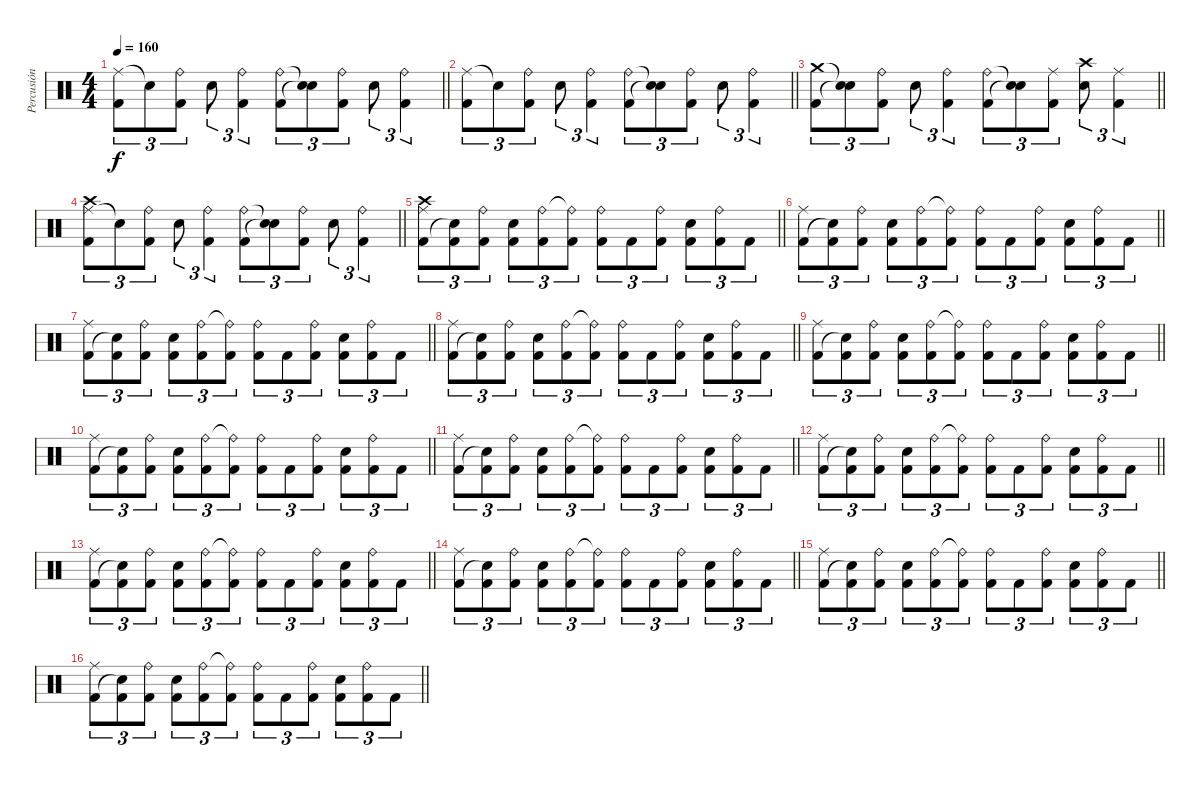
\track ("Percusión" "Percusión") {instrument percussion}
\staff {score}
\articulation defaults
\ts (4 4)
\tempo 160
\clef neutral
\barLineRight lightlight
\ks c
("Ride (middle)" "Kick (hit) 2").8{tu (3 2) dy f} "Snare (hit)"{t}.8{tu (3 2)} ("Ride (bell)" "Kick (hit) 2").8{tu (3 2)} "Snare (hit) 2".8{tu (3 2)} ("Ride (bell)" "Kick (hit) 2").4{tu (3 2)} ("Ride (bell)" "Kick (hit) 2").8{tu (3 2)} ("Snare (hit)"{t} "Snare (hit)"{t}).8{tu (3 2)} ("Ride (bell)" "Kick (hit) 2").8{tu (3 2)} "Snare (hit) 2".8{tu (3 2)} ("Ride (bell)" "Kick (hit) 2").4{tu (3 2)} |
\barLineRight lightlight
("Ride (middle)" "Kick (hit) 2").8{tu (3 2)} "Snare (hit)"{t}.8{tu (3 2)} ("Ride (bell)" "Kick (hit) 2").8{tu (3 2)} "Snare (hit) 2".8{tu (3 2)} ("Ride (bell)" "Kick (hit) 2").4{tu (3 2)} ("Ride (bell)" "Kick (hit) 2").8{tu (3 2)} ("Snare (hit)"{t} "Snare (hit)"{t}).8{tu (3 2)} ("Ride (bell)" "Kick (hit) 2").8{tu (3 2)} "Snare (hit) 2".8{tu (3 2)} ("Ride (bell)" "Kick (hit) 2").4{tu (3 2)} |
\barLineRight lightlight
("Crash medium (hit)" "Kick (hit) 2").8{tu (3 2)} ("Snare (hit)"{t} "Snare (hit)"{t}).8{tu (3 2)} ("Ride (bell)" "Kick (hit) 2").8{tu (3 2)} "Snare (hit) 2".8{tu (3 2)} ("Ride (bell)" "Kick (hit) 2").4{tu (3 2)} ("Ride (bell)" "Kick (hit) 2").8{tu (3 2)} ("Snare (hit)"{t} "Snare (hit)"{t}).8{tu (3 2)} ("Ride (middle)" "Kick (hit) 2").8{tu (3 2)} ("Snare (hit) 2" "Crash high (hit)").8{tu (3 2)} ("Ride (middle)" "Kick (hit) 2").4{tu (3 2)} |
\barLineRight lightlight
("Ride (middle)" "Kick (hit) 2" "Crash high (hit)").8{tu (3 2)} "Snare (hit)"{t}.8{tu (3 2)} ("Ride (bell)" "Kick (hit) 2").8{tu (3 2)} "Snare (hit) 2".8{tu (3 2)} ("Ride (bell)" "Kick (hit) 2").4{tu (3 2)} ("Ride (bell)" "Kick (hit) 2").8{tu (3 2)} ("Snare (hit)"{t} "Snare (hit)"{t}).8{tu (3 2)} ("Ride (bell)" "Kick (hit) 2").8{tu (3 2)} "Snare (hit) 2".8{tu (3 2)} ("Ride (bell)" "Kick (hit) 2").4{tu (3 2)} |
\barLineRight lightlight
("Ride (middle)" "Kick (hit) 2" "Crash high (hit)").8{tu (3 2)} ("Kick (hit) 2" "Snare (hit)"{t}).8{tu (3 2)} ("Ride (bell)" "Kick (hit) 2").8{tu (3 2)} ("Snare (hit) 2" "Kick (hit) 2").8{tu (3 2)} ("Ride (bell)" "Kick (hit) 2").8{tu (3 2)} ("Ride (bell)"{t} "Kick (hit) 2").8{tu (3 2)} ("Kick (hit) 2" "Ride (bell)").8{tu (3 2)} "Kick (hit) 2".8{tu (3 2)} ("Ride (bell)" "Kick (hit) 2").8{tu (3 2)} ("Kick (hit) 2" "Snare (hit) 2").8{tu (3 2)} ("Kick (hit) 2" "Ride (bell)").8{tu (3 2)} "Kick (hit) 2".8{tu (3 2)} |
\barLineRight lightlight
("Ride (middle)" "Kick (hit) 2").8{tu (3 2)} ("Kick (hit) 2" "Snare (hit)"{t}).8{tu (3 2)} ("Ride (bell)" "Kick (hit) 2").8{tu (3 2)} ("Snare (hit) 2" "Kick (hit) 2").8{tu (3 2)} ("Ride (bell)" "Kick (hit) 2").8{tu (3 2)} ("Ride (bell)"{t} "Kick (hit) 2").8{tu (3 2)} ("Kick (hit) 2" "Ride (bell)").8{tu (3 2)} "Kick (hit) 2".8{tu (3 2)} ("Ride (bell)" "Kick (hit) 2").8{tu (3 2)} ("Kick (hit) 2" "Snare (hit) 2").8{tu (3 2)} ("Kick (hit) 2" "Ride (bell)").8{tu (3 2)} "Kick (hit) 2".8{tu (3 2)} |
\barLineRight lightlight
("Ride (middle)" "Kick (hit) 2").8{tu (3 2)} ("Kick (hit) 2" "Snare (hit)"{t}).8{tu (3 2)} ("Ride (bell)" "Kick (hit) 2").8{tu (3 2)} ("Snare (hit) 2" "Kick (hit) 2").8{tu (3 2)} ("Ride (bell)" "Kick (hit) 2").8{tu (3 2)} ("Ride (bell)"{t} "Kick (hit) 2").8{tu (3 2)} ("Kick (hit) 2" "Ride (bell)").8{tu (3 2)} "Kick (hit) 2".8{tu (3 2)} ("Ride (bell)" "Kick (hit) 2").8{tu (3 2)} ("Kick (hit) 2" "Snare (hit) 2").8{tu (3 2)} ("Kick (hit) 2" "Ride (bell)").8{tu (3 2)} "Kick (hit) 2".8{tu (3 2)} |
\barLineRight lightlight
("Ride (middle)" "Kick (hit) 2").8{tu (3 2)} ("Kick (hit) 2" "Snare (hit)"{t}).8{tu (3 2)} ("Ride (bell)" "Kick (hit) 2").8{tu (3 2)} ("Snare (hit) 2" "Kick (hit) 2").8{tu (3 2)} ("Ride (bell)" "Kick (hit) 2").8{tu (3 2)} ("Ride (bell)"{t} "Kick (hit) 2").8{tu (3 2)} ("Kick (hit) 2" "Ride (bell)").8{tu (3 2)} "Kick (hit) 2".8{tu (3 2)} ("Ride (bell)" "Kick (hit) 2").8{tu (3 2)} ("Kick (hit) 2" "Snare (hit) 2").8{tu (3 2)} ("Kick (hit) 2" "Ride (bell)").8{tu (3 2)} "Kick (hit) 2".8{tu (3 2)} |
\barLineRight lightlight
("Ride (middle)" "Kick (hit) 2").8{tu (3 2)} ("Kick (hit) 2" "Snare (hit)"{t}).8{tu (3 2)} ("Ride (bell)" "Kick (hit) 2").8{tu (3 2)} ("Snare (hit) 2" "Kick (hit) 2").8{tu (3 2)} ("Ride (bell)" "Kick (hit) 2").8{tu (3 2)} ("Ride (bell)"{t} "Kick (hit) 2").8{tu (3 2)} ("Kick (hit) 2" "Ride (bell)").8{tu (3 2)} "Kick (hit) 2".8{tu (3 2)} ("Ride (bell)" "Kick (hit) 2").8{tu (3 2)} ("Kick (hit) 2" "Snare (hit) 2").8{tu (3 2)} ("Kick (hit) 2" "Ride (bell)").8{tu (3 2)} "Kick (hit) 2".8{tu (3 2)} |
\barLineRight lightlight
("Ride (middle)" "Kick (hit) 2").8{tu (3 2)} ("Kick (hit) 2" "Snare (hit)"{t}).8{tu (3 2)} ("Ride (bell)" "Kick (hit) 2").8{tu (3 2)} ("Snare (hit) 2" "Kick (hit) 2").8{tu (3 2)} ("Ride (bell)" "Kick (hit) 2").8{tu (3 2)} ("Ride (bell)"{t} "Kick (hit) 2").8{tu (3 2)} ("Kick (hit) 2" "Ride (bell)").8{tu (3 2)} "Kick (hit) 2".8{tu (3 2)} ("Ride (bell)" "Kick (hit) 2").8{tu (3 2)} ("Kick (hit) 2" "Snare (hit) 2").8{tu (3 2)} ("Kick (hit) 2" "Ride (bell)").8{tu (3 2)} "Kick (hit) 2".8{tu (3 2)} |
\barLineRight lightlight
("Ride (middle)" "Kick (hit) 2").8{tu (3 2)} ("Kick (hit) 2" "Snare (hit)"{t}).8{tu (3 2)} ("Ride (bell)" "Kick (hit) 2").8{tu (3 2)} ("Snare (hit) 2" "Kick (hit) 2").8{tu (3 2)} ("Ride (bell)" "Kick (hit) 2").8{tu (3 2)} ("Ride (bell)"{t} "Kick (hit) 2").8{tu (3 2)} ("Kick (hit) 2" "Ride (bell)").8{tu (3 2)} "Kick (hit) 2".8{tu (3 2)} ("Ride (bell)" "Kick (hit) 2").8{tu (3 2)} ("Kick (hit) 2" "Snare (hit) 2").8{tu (3 2)} ("Kick (hit) 2" "Ride (bell)").8{tu (3 2)} "Kick (hit) 2".8{tu (3 2)} |
\barLineRight lightlight
("Ride (middle)" "Kick (hit) 2").8{tu (3 2)} ("Kick (hit) 2" "Snare (hit)"{t}).8{tu (3 2)} ("Ride (bell)" "Kick (hit) 2").8{tu (3 2)} ("Snare (hit) 2" "Kick (hit) 2").8{tu (3 2)} ("Ride (bell)" "Kick (hit) 2").8{tu (3 2)} ("Ride (bell)"{t} "Kick (hit) 2").8{tu (3 2)} ("Kick (hit) 2" "Ride (bell)").8{tu (3 2)} "Kick (hit) 2".8{tu (3 2)} ("Ride (bell)" "Kick (hit) 2").8{tu (3 2)} ("Kick (hit) 2" "Snare (hit) 2").8{tu (3 2)} ("Kick (hit) 2" "Ride (bell)").8{tu (3 2)} "Kick (hit) 2".8{tu (3 2)} |
\barLineRight lightlight
("Ride (middle)" "Kick (hit) 2").8{tu (3 2)} ("Kick (hit) 2" "Snare (hit)"{t}).8{tu (3 2)} ("Ride (bell)" "Kick (hit) 2").8{tu (3 2)} ("Snare (hit) 2" "Kick (hit) 2").8{tu (3 2)} ("Ride (bell)" "Kick (hit) 2").8{tu (3 2)} ("Ride (bell)"{t} "Kick (hit) 2").8{tu (3 2)} ("Kick (hit) 2" "Ride (bell)").8{tu (3 2)} "Kick (hit) 2".8{tu (3 2)} ("Ride (bell)" "Kick (hit) 2").8{tu (3 2)} ("Kick (hit) 2" "Snare (hit) 2").8{tu (3 2)} ("Kick (hit) 2" "Ride (bell)").8{tu (3 2)} "Kick (hit) 2".8{tu (3 2)} |
\barLineRight lightlight
("Ride (middle)" "Kick (hit) 2").8{tu (3 2)} ("Kick (hit) 2" "Snare (hit)"{t}).8{tu (3 2)} ("Ride (bell)" "Kick (hit) 2").8{tu (3 2)} ("Snare (hit) 2" "Kick (hit) 2").8{tu (3 2)} ("Ride (bell)" "Kick (hit) 2").8{tu (3 2)} ("Ride (bell)"{t} "Kick (hit) 2").8{tu (3 2)} ("Kick (hit) 2" "Ride (bell)").8{tu (3 2)} "Kick (hit) 2".8{tu (3 2)} ("Ride (bell)" "Kick (hit) 2").8{tu (3 2)} ("Kick (hit) 2" "Snare (hit) 2").8{tu (3 2)} ("Kick (hit) 2" "Ride (bell)").8{tu (3 2)} "Kick (hit) 2".8{tu (3 2)} |
\barLineRight lightlight
("Ride (middle)" "Kick (hit) 2").8{tu (3 2)} ("Kick (hit) 2" "Snare (hit)"{t}).8{tu (3 2)} ("Ride (bell)" "Kick (hit) 2").8{tu (3 2)} ("Snare (hit) 2" "Kick (hit) 2").8{tu (3 2)} ("Ride (bell)" "Kick (hit) 2").8{tu (3 2)} ("Ride (bell)"{t} "Kick (hit) 2").8{tu (3 2)} ("Kick (hit) 2" "Ride (bell)").8{tu (3 2)} "Kick (hit) 2".8{tu (3 2)} ("Ride (bell)" "Kick (hit) 2").8{tu (3 2)} ("Kick (hit) 2" "Snare (hit) 2").8{tu (3 2)} ("Kick (hit) 2" "Ride (bell)").8{tu (3 2)} "Kick (hit) 2".8{tu (3 2)} |
\barLineRight lightlight
("Ride (middle)" "Kick (hit) 2").8{tu (3 2)} ("Kick (hit) 2" "Snare (hit)"{t}).8{tu (3 2)} ("Ride (bell)" "Kick (hit) 2").8{tu (3 2)} ("Snare (hit) 2" "Kick (hit) 2").8{tu (3 2)} ("Ride (bell)" "Kick (hit) 2").8{tu (3 2)} ("Ride (bell)"{t} "Kick (hit) 2").8{tu (3 2)} ("Kick (hit) 2" "Ride (bell)").8{tu (3 2)} "Kick (hit) 2".8{tu (3 2)} ("Ride (bell)" "Kick (hit) 2").8{tu (3 2)} ("Kick (hit) 2" "Snare (hit) 2").8{tu (3 2)} ("Kick (hit) 2" "Ride (bell)").8{tu (3 2)} "Kick (hit) 2".8{tu (3 2)}
